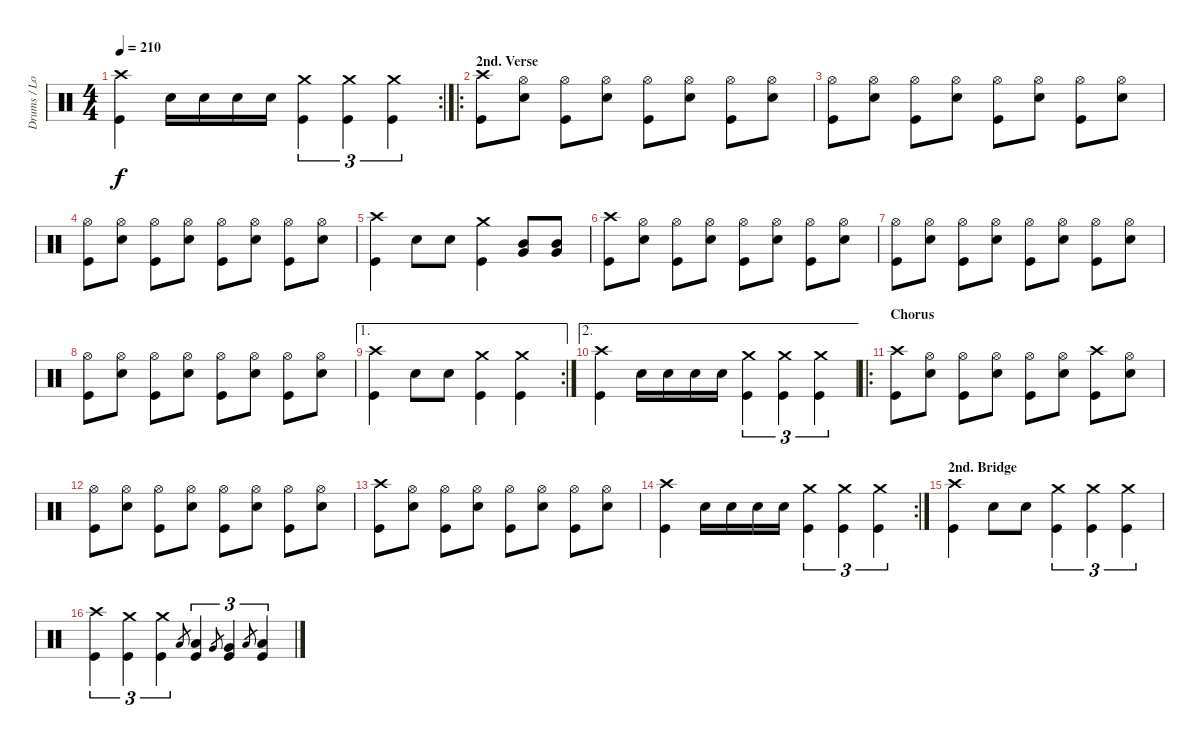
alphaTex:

\track ("Drums / Louie Clemente" "Drums / Lo") {instrument percussion}
\staff {score}
\articulation defaults
\rc 2
\ts (4 4)
\tempo 210
\clef neutral
\ks c
("Crash high (hit)" "Kick (hit)").4{dy f} "Snare (hit) 2".16 "Snare (hit) 2".16 "Snare (hit) 2".16 "Snare (hit) 2".16 ("Crash medium (hit)" "Kick (hit)").4{tu (3 2)} ("Crash medium (hit)" "Kick (hit)").4{tu (3 2)} ("Crash medium (hit)" "Kick (hit)").4{tu (3 2)} |
\ro
\section ("" "2nd. Verse")
("Crash high (hit)" "Kick (hit)").8 ("Hi-Hat (open)" "Snare (hit) 2").8 ("Hi-Hat (open)" "Kick (hit)").8 ("Hi-Hat (open)" "Snare (hit) 2").8 ("Hi-Hat (open)" "Kick (hit)").8 ("Hi-Hat (open)" "Snare (hit) 2").8 ("Hi-Hat (open)" "Kick (hit)").8 ("Hi-Hat (open)" "Snare (hit) 2").8 |
("Hi-Hat (open)" "Kick (hit)").8 ("Hi-Hat (open)" "Snare (hit) 2").8 ("Hi-Hat (open)" "Kick (hit)").8 ("Hi-Hat (open)" "Snare (hit) 2").8 ("Hi-Hat (open)" "Kick (hit)").8 ("Hi-Hat (open)" "Snare (hit) 2").8 ("Hi-Hat (open)" "Kick (hit)").8 ("Hi-Hat (open)" "Snare (hit) 2").8 |
("Hi-Hat (open)" "Kick (hit)").8 ("Hi-Hat (open)" "Snare (hit) 2").8 ("Hi-Hat (open)" "Kick (hit)").8 ("Hi-Hat (open)" "Snare (hit) 2").8 ("Hi-Hat (open)" "Kick (hit)").8 ("Hi-Hat (open)" "Snare (hit) 2").8 ("Hi-Hat (open)" "Kick (hit)").8 ("Hi-Hat (open)" "Snare (hit) 2").8 |
("Crash high (hit)" "Kick (hit)").4 "Snare (hit) 2".8 "Snare (hit) 2".8 ("Crash medium (hit)" "Kick (hit)").4 ("Very Low Tom (hit)" "Mid Tom (hit)").8 ("Very Low Tom (hit)" "Mid Tom (hit)").8 |
("Crash high (hit)" "Kick (hit)").8 ("Hi-Hat (open)" "Snare (hit) 2").8 ("Hi-Hat (open)" "Kick (hit)").8 ("Hi-Hat (open)" "Snare (hit) 2").8 ("Hi-Hat (open)" "Kick (hit)").8 ("Hi-Hat (open)" "Snare (hit) 2").8 ("Hi-Hat (open)" "Kick (hit)").8 ("Hi-Hat (open)" "Snare (hit) 2").8 |
("Hi-Hat (open)" "Kick (hit)").8 ("Hi-Hat (open)" "Snare (hit) 2").8 ("Hi-Hat (open)" "Kick (hit)").8 ("Hi-Hat (open)" "Snare (hit) 2").8 ("Hi-Hat (open)" "Kick (hit)").8 ("Hi-Hat (open)" "Snare (hit) 2").8 ("Hi-Hat (open)" "Kick (hit)").8 ("Hi-Hat (open)" "Snare (hit) 2").8 |
("Hi-Hat (open)" "Kick (hit)").8 ("Hi-Hat (open)" "Snare (hit) 2").8 ("Hi-Hat (open)" "Kick (hit)").8 ("Hi-Hat (open)" "Snare (hit) 2").8 ("Hi-Hat (open)" "Kick (hit)").8 ("Hi-Hat (open)" "Snare (hit) 2").8 ("Hi-Hat (open)" "Kick (hit)").8 ("Hi-Hat (open)" "Snare (hit) 2").8 |
\ae 1
\rc 2
("Crash high (hit)" "Kick (hit)").4 "Snare (hit) 2".8 "Snare (hit) 2".8 ("Crash medium (hit)" "Kick (hit)").4 ("Crash medium (hit)" "Kick (hit)").4 |
\ae 2
("Crash high (hit)" "Kick (hit)").4 "Snare (hit) 2".16 "Snare (hit) 2".16 "Snare (hit) 2".16 "Snare (hit) 2".16 ("Crash medium (hit)" "Kick (hit)").4{tu (3 2)} ("Crash medium (hit)" "Kick (hit)").4{tu (3 2)} ("Crash medium (hit)" "Kick (hit)").4{tu (3 2)} |
\ro
\section ("" "Chorus")
("Crash high (hit)" "Kick (hit)").8 ("Hi-Hat (open)" "Snare (hit) 2").8 ("Hi-Hat (open)" "Kick (hit)").8 ("Hi-Hat (open)" "Snare (hit) 2").8 ("Hi-Hat (open)" "Kick (hit)").8 ("Hi-Hat (open)" "Snare (hit) 2").8 ("Crash high (hit)" "Kick (hit)").8 ("Hi-Hat (open)" "Snare (hit) 2").8 |
("Hi-Hat (open)" "Kick (hit)").8 ("Hi-Hat (open)" "Snare (hit) 2").8 ("Hi-Hat (open)" "Kick (hit)").8 ("Hi-Hat (open)" "Snare (hit) 2").8 ("Hi-Hat (open)" "Kick (hit)").8 ("Hi-Hat (open)" "Snare (hit) 2").8 ("Hi-Hat (open)" "Kick (hit)").8 ("Hi-Hat (open)" "Snare (hit) 2").8 |
("Crash high (hit)" "Kick (hit)").8 ("Hi-Hat (open)" "Snare (hit) 2").8 ("Hi-Hat (open)" "Kick (hit)").8 ("Hi-Hat (open)" "Snare (hit) 2").8 ("Hi-Hat (open)" "Kick (hit)").8 ("Hi-Hat (open)" "Snare (hit) 2").8 ("Hi-Hat (open)" "Kick (hit)").8 ("Hi-Hat (open)" "Snare (hit) 2").8 |
\rc 2
("Crash high (hit)" "Kick (hit)").4 "Snare (hit) 2".16 "Snare (hit) 2".16 "Snare (hit) 2".16 "Snare (hit) 2".16 ("Crash medium (hit)" "Kick (hit)").4{tu (3 2)} ("Crash medium (hit)" "Kick (hit)").4{tu (3 2)} ("Crash medium (hit)" "Kick (hit)").4{tu (3 2)} |
\section ("" "2nd. Bridge")
("Crash high (hit)" "Kick (hit)").4 "Snare (hit) 2".8 "Snare (hit) 2".8 ("Crash medium (hit)" "Kick (hit)").4{tu (3 2)} ("Crash medium (hit)" "Kick (hit)").4{tu (3 2)} ("Crash medium (hit)" "Kick (hit)").4{tu (3 2)} |
("Crash high (hit)" "Kick (hit)").4{tu (3 2)} ("Crash medium (hit)" "Kick (hit)").4{tu (3 2)} ("Crash medium (hit)" "Kick (hit)").4{tu (3 2)} "Low Tom (hit)".8{gr} ("Low Tom (hit)" "Kick (hit)").4{tu (3 2)} "Very Low Tom (hit)".8{gr} ("Very Low Tom (hit)" "Kick (hit)").4{tu (3 2)} "Low Floor Tom (hit)".8{gr} ("Low Floor Tom (hit)" "Kick (hit)").4{tu (3 2)}
